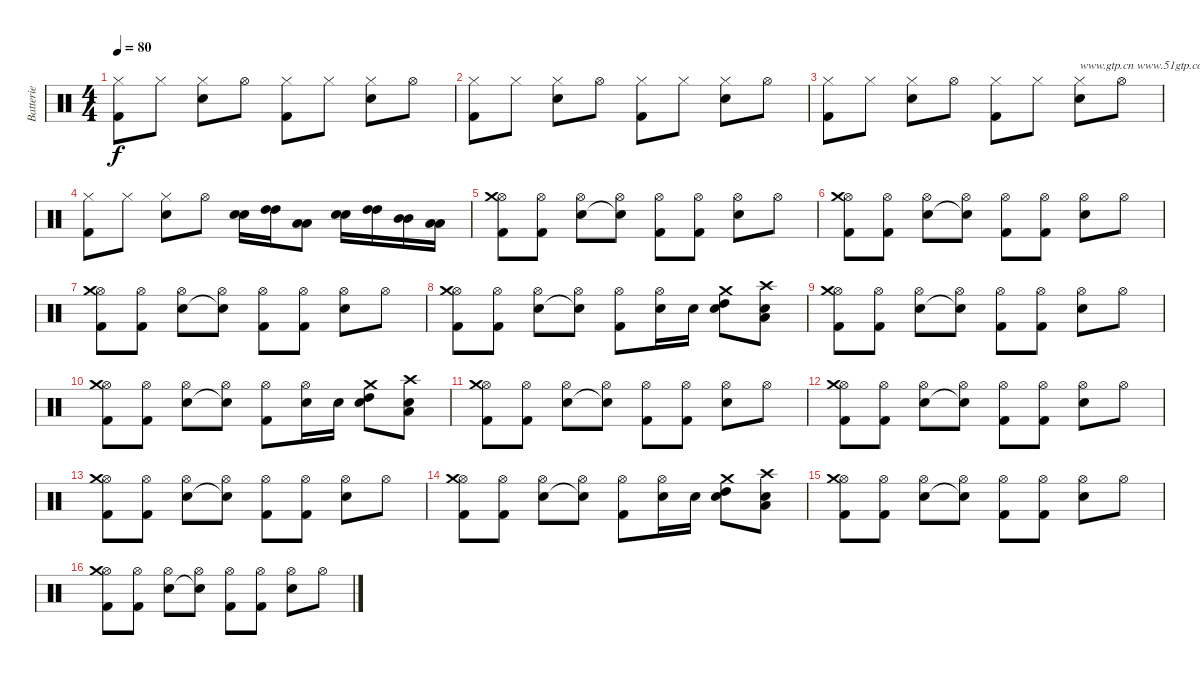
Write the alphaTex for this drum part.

\track ("Batterie" "Batterie") {instrument percussion}
\staff {score}
\articulation defaults
\ts (4 4)
\tempo 80
\clef neutral
\ks c
("Hi-Hat (closed)" "Kick (hit) 2").8{dy f} "Hi-Hat (closed)".8 ("Hi-Hat (closed)" "Snare (hit) 2").8 "Hi-Hat (open)".8 ("Hi-Hat (closed)" "Kick (hit) 2").8 "Hi-Hat (closed)".8 ("Hi-Hat (closed)" "Snare (hit) 2").8 "Hi-Hat (open)".8 |
("Hi-Hat (closed)" "Kick (hit) 2").8 "Hi-Hat (closed)".8 ("Hi-Hat (closed)" "Snare (hit) 2").8 "Hi-Hat (open)".8 ("Hi-Hat (closed)" "Kick (hit) 2").8 "Hi-Hat (closed)".8 ("Hi-Hat (closed)" "Snare (hit) 2").8 "Hi-Hat (open)".8 |
("Hi-Hat (closed)" "Kick (hit) 2").8 "Hi-Hat (closed)".8 ("Hi-Hat (closed)" "Snare (hit) 2").8 "Hi-Hat (open)".8 ("Hi-Hat (closed)" "Kick (hit) 2").8 "Hi-Hat (closed)".8 ("Hi-Hat (closed)" "Snare (hit) 2").8{txt "www.gtp.cn www.51gtp.com联合为您提供优秀的GTP!"} "Hi-Hat (open)".8 |
("Hi-Hat (closed)" "Kick (hit) 2").8 "Hi-Hat (closed)".8 ("Hi-Hat (closed)" "Snare (hit) 2").8 "Hi-Hat (open)".8 ("Snare (hit) 2" "Snare (hit) 2").16 ("High Tom (hit)" "High Tom (hit)").16 ("Low Tom (hit)" "Low Tom (hit)").8 ("Snare (hit) 2" "Snare (hit) 2").16 ("High Tom (hit)" "High Tom (hit)").16 ("Mid Tom (hit)" "Mid Tom (hit)").16 ("Low Tom (hit)" "Low Tom (hit)").16 |
("Hi-Hat (open)" "Crash medium (hit)" "Kick (hit) 2").8 ("Hi-Hat (open)" "Kick (hit) 2").8 ("Hi-Hat (open)" "Snare (hit) 2").8 ("Hi-Hat (open)" "Snare (hit)"{t}).8 ("Hi-Hat (open)" "Kick (hit) 2").8 ("Hi-Hat (open)" "Kick (hit) 2").8 ("Hi-Hat (open)" "Snare (hit) 2").8 "Hi-Hat (open)".8 |
("Hi-Hat (open)" "Crash medium (hit)" "Kick (hit) 2").8 ("Hi-Hat (open)" "Kick (hit) 2").8 ("Hi-Hat (open)" "Snare (hit) 2").8 ("Hi-Hat (open)" "Snare (hit)"{t}).8 ("Hi-Hat (open)" "Kick (hit) 2").8 ("Hi-Hat (open)" "Kick (hit) 2").8 ("Hi-Hat (open)" "Snare (hit) 2").8 "Hi-Hat (open)".8 |
("Hi-Hat (open)" "Crash medium (hit)" "Kick (hit) 2").8 ("Hi-Hat (open)" "Kick (hit) 2").8 ("Hi-Hat (open)" "Snare (hit) 2").8 ("Hi-Hat (open)" "Snare (hit)"{t}).8 ("Hi-Hat (open)" "Kick (hit) 2").8 ("Hi-Hat (open)" "Kick (hit) 2").8 ("Hi-Hat (open)" "Snare (hit) 2").8 "Hi-Hat (open)".8 |
("Hi-Hat (open)" "Crash medium (hit)" "Kick (hit) 2").8 ("Hi-Hat (open)" "Kick (hit) 2").8 ("Hi-Hat (open)" "Snare (hit) 2").8 ("Hi-Hat (open)" "Snare (hit)"{t}).8 ("Hi-Hat (open)" "Kick (hit) 2").8 ("Hi-Hat (open)" "Snare (hit) 2").16 "Snare (hit) 2".16 ("Crash medium (hit)" "High Tom (hit)" "Snare (hit) 2").8 ("Crash high (hit)" "Low Tom (hit)" "Snare (hit) 2").8 |
("Hi-Hat (open)" "Crash medium (hit)" "Kick (hit) 2").8 ("Hi-Hat (open)" "Kick (hit) 2").8 ("Hi-Hat (open)" "Snare (hit) 2").8 ("Hi-Hat (open)" "Snare (hit)"{t}).8 ("Hi-Hat (open)" "Kick (hit) 2").8 ("Hi-Hat (open)" "Kick (hit) 2").8 ("Hi-Hat (open)" "Snare (hit) 2").8 "Hi-Hat (open)".8 |
("Hi-Hat (open)" "Crash medium (hit)" "Kick (hit) 2").8 ("Hi-Hat (open)" "Kick (hit) 2").8 ("Hi-Hat (open)" "Snare (hit) 2").8 ("Hi-Hat (open)" "Snare (hit)"{t}).8 ("Hi-Hat (open)" "Kick (hit) 2").8 ("Hi-Hat (open)" "Snare (hit) 2").16 "Snare (hit) 2".16 ("Crash medium (hit)" "High Tom (hit)" "Snare (hit) 2").8 ("Crash high (hit)" "Low Tom (hit)" "Snare (hit) 2").8 |
("Hi-Hat (open)" "Crash medium (hit)" "Kick (hit) 2").8 ("Hi-Hat (open)" "Kick (hit) 2").8 ("Hi-Hat (open)" "Snare (hit) 2").8 ("Hi-Hat (open)" "Snare (hit)"{t}).8 ("Hi-Hat (open)" "Kick (hit) 2").8 ("Hi-Hat (open)" "Kick (hit) 2").8 ("Hi-Hat (open)" "Snare (hit) 2").8 "Hi-Hat (open)".8 |
("Hi-Hat (open)" "Crash medium (hit)" "Kick (hit) 2").8 ("Hi-Hat (open)" "Kick (hit) 2").8 ("Hi-Hat (open)" "Snare (hit) 2").8 ("Hi-Hat (open)" "Snare (hit)"{t}).8 ("Hi-Hat (open)" "Kick (hit) 2").8 ("Hi-Hat (open)" "Kick (hit) 2").8 ("Hi-Hat (open)" "Snare (hit) 2").8 "Hi-Hat (open)".8 |
("Hi-Hat (open)" "Crash medium (hit)" "Kick (hit) 2").8 ("Hi-Hat (open)" "Kick (hit) 2").8 ("Hi-Hat (open)" "Snare (hit) 2").8 ("Hi-Hat (open)" "Snare (hit)"{t}).8 ("Hi-Hat (open)" "Kick (hit) 2").8 ("Hi-Hat (open)" "Kick (hit) 2").8 ("Hi-Hat (open)" "Snare (hit) 2").8 "Hi-Hat (open)".8 |
("Hi-Hat (open)" "Crash medium (hit)" "Kick (hit) 2").8 ("Hi-Hat (open)" "Kick (hit) 2").8 ("Hi-Hat (open)" "Snare (hit) 2").8 ("Hi-Hat (open)" "Snare (hit)"{t}).8 ("Hi-Hat (open)" "Kick (hit) 2").8 ("Hi-Hat (open)" "Snare (hit) 2").16 "Snare (hit) 2".16 ("Crash medium (hit)" "High Tom (hit)" "Snare (hit) 2").8 ("Crash high (hit)" "Low Tom (hit)" "Snare (hit) 2").8 |
("Hi-Hat (open)" "Crash medium (hit)" "Kick (hit) 2").8 ("Hi-Hat (open)" "Kick (hit) 2").8 ("Hi-Hat (open)" "Snare (hit) 2").8 ("Hi-Hat (open)" "Snare (hit)"{t}).8 ("Hi-Hat (open)" "Kick (hit) 2").8 ("Hi-Hat (open)" "Kick (hit) 2").8 ("Hi-Hat (open)" "Snare (hit) 2").8 "Hi-Hat (open)".8 |
("Hi-Hat (open)" "Crash medium (hit)" "Kick (hit) 2").8 ("Hi-Hat (open)" "Kick (hit) 2").8 ("Hi-Hat (open)" "Snare (hit) 2").8 ("Hi-Hat (open)" "Snare (hit)"{t}).8 ("Hi-Hat (open)" "Kick (hit) 2").8 ("Hi-Hat (open)" "Kick (hit) 2").8 ("Hi-Hat (open)" "Snare (hit) 2").8 "Hi-Hat (open)".8
